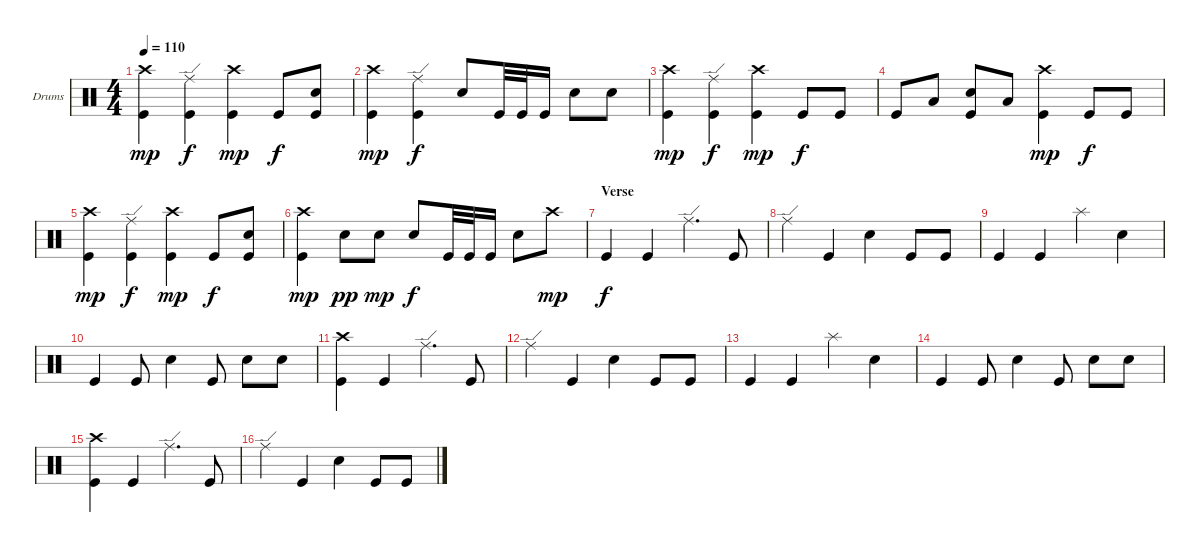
\bracketExtendMode groupsimilarinstruments
\firstSystemTrackNameOrientation horizontal
\otherSystemsTrackNameOrientation horizontal
\track ("Drumkit" "Drums") {instrument percussion}
\staff {score}
\articulation defaults
\ts (4 4)
\tempo 110
\clef neutral
\ks c
("Crash high (hit)" "Kick (hit)").4{dy mp} ("Ride (edge)" "Kick (hit)").4{dy f} ("Crash high (hit)" "Kick (hit)").4{dy mp} "Kick (hit)".8{dy f} ("Snare (hit) 2" "Kick (hit)").8 |
("Crash high (hit)" "Kick (hit)").4{dy mp} ("Ride (edge)" "Kick (hit)").4{dy f} "Snare (hit) 2".8 "Kick (hit)".32 "Kick (hit)".32 "Kick (hit)".16 "Snare (hit) 2".8 "Snare (hit) 2".8 |
("Crash high (hit)" "Kick (hit)").4{dy mp} ("Ride (edge)" "Kick (hit)").4{dy f} ("Crash high (hit)" "Kick (hit)").4{dy mp} "Kick (hit)".8{dy f} "Kick (hit)".8 |
"Kick (hit)".8 "Low Tom (hit)".8 ("Snare (hit) 2" "Kick (hit)").8 "Low Tom (hit)".8 ("Crash high (hit)" "Kick (hit)").4{dy mp} "Kick (hit)".8{dy f} "Kick (hit)".8 |
("Crash high (hit)" "Kick (hit)").4{dy mp} ("Ride (edge)" "Kick (hit)").4{dy f} ("Crash high (hit)" "Kick (hit)").4{dy mp} "Kick (hit)".8{dy f} ("Snare (hit) 2" "Kick (hit)").8 |
("Crash high (hit)" "Kick (hit)").4{dy mp} "Snare (hit) 2".8{dy pp} "Snare (hit) 2".8{dy mp} "Snare (hit) 2".8{dy f} "Kick (hit)".32 "Kick (hit)".32 "Kick (hit)".16 "Snare (hit) 2".8 "Crash high (hit)".8{dy mp} |
\section ("" "Verse")
"Kick (hit)".4{dy f} "Kick (hit)".4 "Ride (edge)".4{d} "Kick (hit)".8 |
"Ride (edge)".4 "Kick (hit)".4 "Snare (hit) 2".4 "Kick (hit)".8 "Kick (hit)".8 |
"Kick (hit)".4 "Kick (hit)".4 "Splash (hit)".4 "Snare (hit) 2".4 |
"Kick (hit)".4 "Kick (hit)".8 "Snare (hit) 2".4 "Kick (hit)".8 "Snare (hit) 2".8 "Snare (hit) 2".8 |
("Crash high (hit)" "Kick (hit)").4 "Kick (hit)".4 "Ride (edge)".4{d} "Kick (hit)".8 |
"Ride (edge)".4 "Kick (hit)".4 "Snare (hit) 2".4 "Kick (hit)".8 "Kick (hit)".8 |
"Kick (hit)".4 "Kick (hit)".4 "Splash (hit)".4 "Snare (hit) 2".4 |
"Kick (hit)".4 "Kick (hit)".8 "Snare (hit) 2".4 "Kick (hit)".8 "Snare (hit) 2".8 "Snare (hit) 2".8 |
("Crash high (hit)" "Kick (hit)").4 "Kick (hit)".4 "Ride (edge)".4{d} "Kick (hit)".8 |
"Ride (edge)".4 "Kick (hit)".4 "Snare (hit) 2".4 "Kick (hit)".8 "Kick (hit)".8
